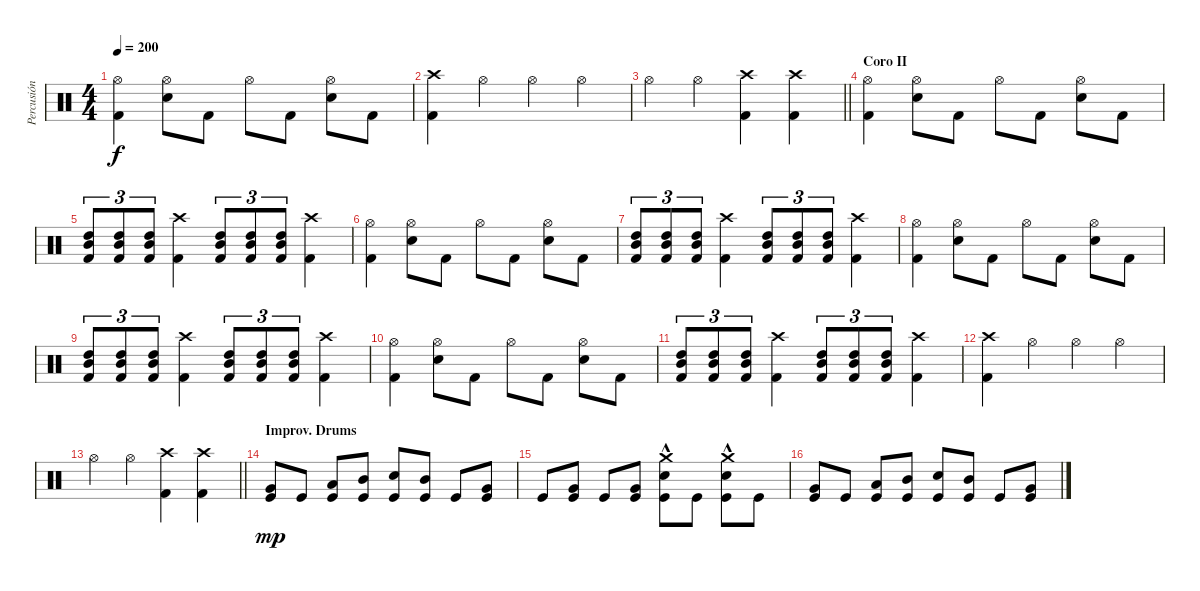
\track ("Percusión" "Percusión") {instrument percussion}
\staff {score}
\articulation defaults
\ts (4 4)
\tempo 200
\clef neutral
\ks c
("Hi-Hat (open)" "Kick (hit) 2").4{dy f} ("Hi-Hat (open)" "Electric Snare (hit)").8 "Kick (hit) 2".8 "Hi-Hat (open)".8 "Kick (hit) 2".8 ("Hi-Hat (open)" "Electric Snare (hit)").8 "Kick (hit) 2".8 |
("Crash high (hit)" "Kick (hit) 2").4 "Hi-Hat (open)".4 "Hi-Hat (open)".4 "Hi-Hat (open)".4 |
\barLineRight lightlight "Hi-Hat (open)".4 "Hi-Hat (open)".4
("Crash high (hit)" "Kick (hit) 2").4 ("Crash high (hit)" "Kick (hit) 2").4 |
\section ("" "Coro II")
("Hi-Hat (open)" "Kick (hit) 2").4 ("Hi-Hat (open)" "Electric Snare (hit)").8 "Kick (hit) 2".8 "Hi-Hat (open)".8 "Kick (hit) 2".8 ("Hi-Hat (open)" "Electric Snare (hit)").8 "Kick (hit) 2".8 |
("High Tom (hit)" "Mid Tom (hit)" "Kick (hit) 2").8{tu (3 2)} ("High Tom (hit)" "Mid Tom (hit)" "Kick (hit) 2").8{tu (3 2)} ("High Tom (hit)" "Mid Tom (hit)" "Kick (hit) 2").8{tu (3 2)} ("Crash high (hit)" "Kick (hit) 2").4 ("High Tom (hit)" "Mid Tom (hit)" "Kick (hit) 2").8{tu (3 2)} ("High Tom (hit)" "Mid Tom (hit)" "Kick (hit) 2").8{tu (3 2)} ("High Tom (hit)" "Mid Tom (hit)" "Kick (hit) 2").8{tu (3 2)} ("Crash high (hit)" "Kick (hit) 2").4 |
("Hi-Hat (open)" "Kick (hit) 2").4 ("Hi-Hat (open)" "Electric Snare (hit)").8 "Kick (hit) 2".8 "Hi-Hat (open)".8 "Kick (hit) 2".8 ("Hi-Hat (open)" "Electric Snare (hit)").8 "Kick (hit) 2".8 |
("High Tom (hit)" "Mid Tom (hit)" "Kick (hit) 2").8{tu (3 2)} ("High Tom (hit)" "Mid Tom (hit)" "Kick (hit) 2").8{tu (3 2)} ("High Tom (hit)" "Mid Tom (hit)" "Kick (hit) 2").8{tu (3 2)} ("Crash high (hit)" "Kick (hit) 2").4 ("High Tom (hit)" "Mid Tom (hit)" "Kick (hit) 2").8{tu (3 2)} ("High Tom (hit)" "Mid Tom (hit)" "Kick (hit) 2").8{tu (3 2)} ("High Tom (hit)" "Mid Tom (hit)" "Kick (hit) 2").8{tu (3 2)} ("Crash high (hit)" "Kick (hit) 2").4 |
("Hi-Hat (open)" "Kick (hit) 2").4 ("Hi-Hat (open)" "Electric Snare (hit)").8 "Kick (hit) 2".8 "Hi-Hat (open)".8 "Kick (hit) 2".8 ("Hi-Hat (open)" "Electric Snare (hit)").8 "Kick (hit) 2".8 |
("High Tom (hit)" "Mid Tom (hit)" "Kick (hit) 2").8{tu (3 2)} ("High Tom (hit)" "Mid Tom (hit)" "Kick (hit) 2").8{tu (3 2)} ("High Tom (hit)" "Mid Tom (hit)" "Kick (hit) 2").8{tu (3 2)} ("Crash high (hit)" "Kick (hit) 2").4 ("High Tom (hit)" "Mid Tom (hit)" "Kick (hit) 2").8{tu (3 2)} ("High Tom (hit)" "Mid Tom (hit)" "Kick (hit) 2").8{tu (3 2)} ("High Tom (hit)" "Mid Tom (hit)" "Kick (hit) 2").8{tu (3 2)} ("Crash high (hit)" "Kick (hit) 2").4 |
("Hi-Hat (open)" "Kick (hit) 2").4 ("Hi-Hat (open)" "Electric Snare (hit)").8 "Kick (hit) 2".8 "Hi-Hat (open)".8 "Kick (hit) 2".8 ("Hi-Hat (open)" "Electric Snare (hit)").8 "Kick (hit) 2".8 |
("High Tom (hit)" "Mid Tom (hit)" "Kick (hit) 2").8{tu (3 2)} ("High Tom (hit)" "Mid Tom (hit)" "Kick (hit) 2").8{tu (3 2)} ("High Tom (hit)" "Mid Tom (hit)" "Kick (hit) 2").8{tu (3 2)} ("Crash high (hit)" "Kick (hit) 2").4 ("High Tom (hit)" "Mid Tom (hit)" "Kick (hit) 2").8{tu (3 2)} ("High Tom (hit)" "Mid Tom (hit)" "Kick (hit) 2").8{tu (3 2)} ("High Tom (hit)" "Mid Tom (hit)" "Kick (hit) 2").8{tu (3 2)} ("Crash high (hit)" "Kick (hit) 2").4 |
("Crash high (hit)" "Kick (hit) 2").4 "Hi-Hat (open)".4 "Hi-Hat (open)".4 "Hi-Hat (open)".4 |
\barLineRight lightlight "Hi-Hat (open)".4 "Hi-Hat (open)".4
("Crash high (hit)" "Kick (hit) 2").4 ("Crash high (hit)" "Kick (hit) 2").4 |
\section ("" "Improv. Drums ")
("Very Low Tom (hit)" "Kick (hit)").8{dy mp} "Kick (hit)".8 ("Low Tom (hit)" "Kick (hit)").8 ("Mid Tom (hit)" "Kick (hit)").8 ("Electric Snare (hit)" "Kick (hit)").8 ("Mid Tom (hit)" "Kick (hit)").8 "Kick (hit)".8 ("Very Low Tom (hit)" "Kick (hit)").8 |
"Kick (hit)".8 ("Very Low Tom (hit)" "Kick (hit)").8 "Kick (hit)".8 ("Very Low Tom (hit)" "Kick (hit)").8 ("Crash medium (hit)"{hac} "Electric Snare (hit)"{hac} "Kick (hit)").8 "Kick (hit)".8 ("Crash medium (hit)"{hac} "Electric Snare (hit)"{hac} "Kick (hit)").8 "Kick (hit)".8 |
("Very Low Tom (hit)" "Kick (hit)").8 "Kick (hit)".8 ("Low Tom (hit)" "Kick (hit)").8 ("Mid Tom (hit)" "Kick (hit)").8 ("Electric Snare (hit)" "Kick (hit)").8 ("Mid Tom (hit)" "Kick (hit)").8 "Kick (hit)".8 ("Very Low Tom (hit)" "Kick (hit)").8
